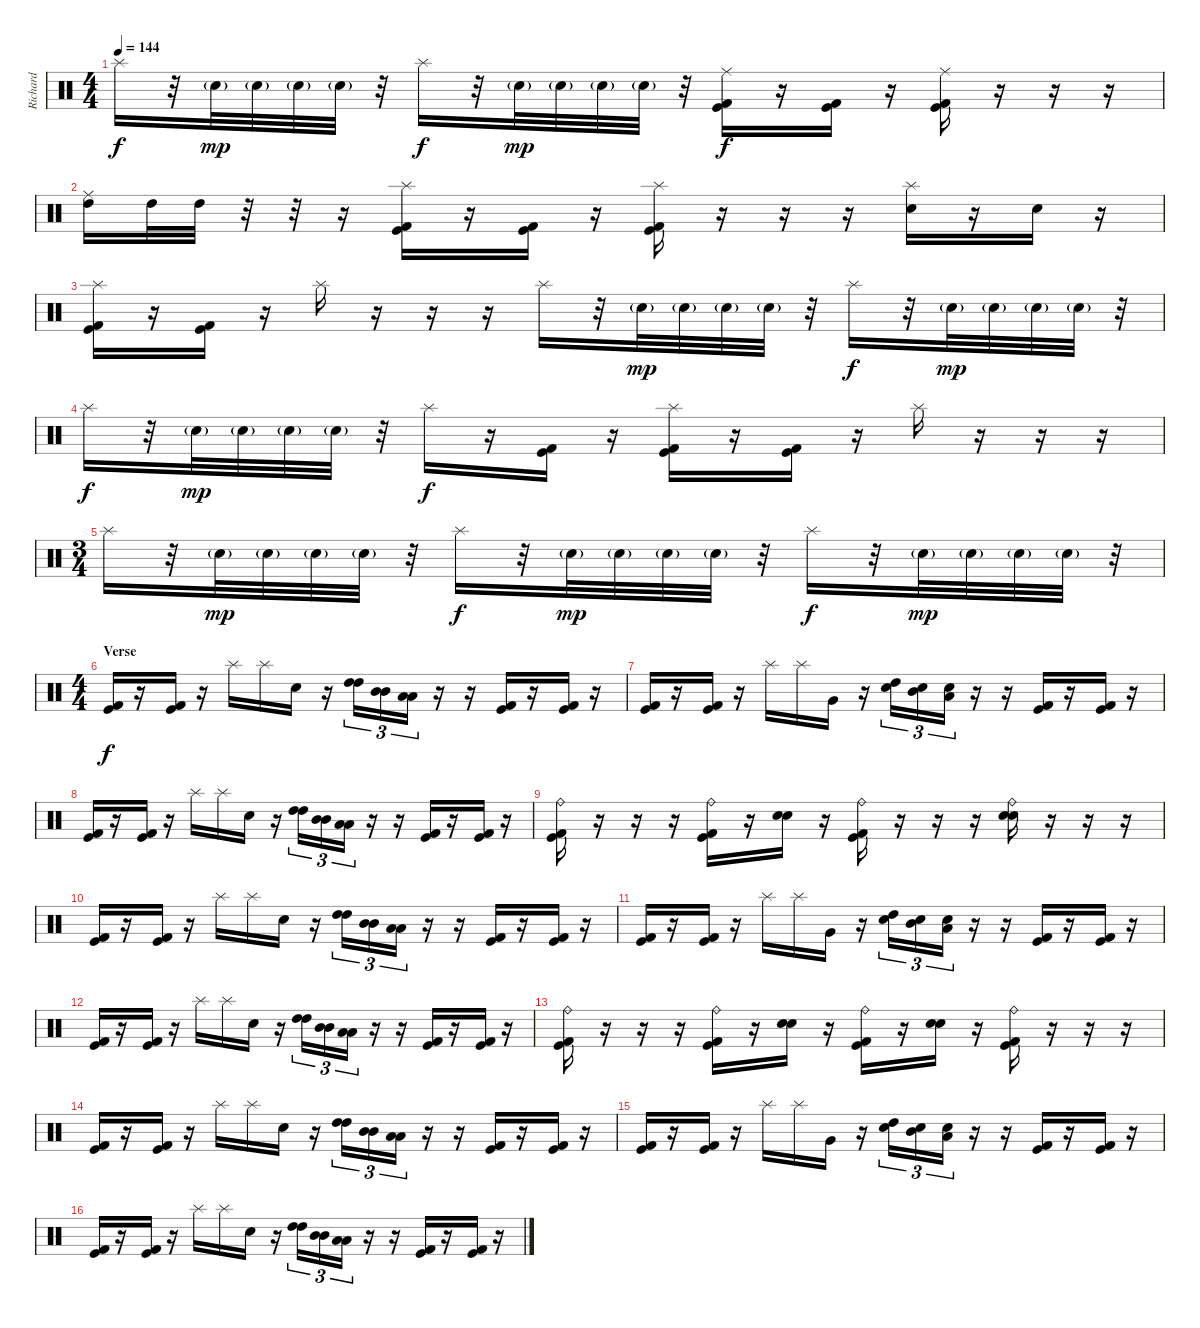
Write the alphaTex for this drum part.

\track ("Richard" "Richard") {instrument percussion}
\staff {score}
\articulation defaults
\ts (4 4)
\tempo 144
\clef neutral
\ks c "Splash (hit)".16{dy f}
r.32 "Snare (hit) 2"{g}.32{dy mp} "Snare (hit) 2"{g}.32 "Snare (hit) 2"{g}.32 "Snare (hit) 2"{g}.32 r.32 "Splash (hit)".16{dy f} r.32 "Snare (hit) 2"{g}.32{dy mp} "Snare (hit) 2"{g}.32 "Snare (hit) 2"{g}.32 "Snare (hit) 2"{g}.32 r.32 ("Ride (middle)" "Kick (hit)" "Kick (hit) 2").16{dy f} r.16 ("Kick (hit)" "Kick (hit) 2").16 r.16 ("Ride (middle)" "Kick (hit) 2" "Kick (hit)").16 r.16 r.16 r.16 |
("Ride (middle)" "High Tom (hit)").16 "High Tom (hit)".32 "High Tom (hit)".32 r.32 r.32 r.16 ("Splash (hit)" "Kick (hit) 2" "Kick (hit)").16 r.16 ("Kick (hit) 2" "Kick (hit)").16 r.16 ("Splash (hit)" "Kick (hit) 2" "Kick (hit)").16 r.16 r.16 r.16 ("Splash (hit)" "Snare (hit) 2").16 r.16 "Snare (hit) 2".16 r.16 |
("Splash (hit)" "Kick (hit)" "Kick (hit) 2").16 r.16 ("Kick (hit)" "Kick (hit) 2").16 r.16 "Splash (hit)".16 r.16 r.16 r.16 "Splash (hit)".16 r.32 "Snare (hit) 2"{g}.32{dy mp} "Snare (hit) 2"{g}.32 "Snare (hit) 2"{g}.32 "Snare (hit) 2"{g}.32 r.32 "Splash (hit)".16{dy f} r.32 "Snare (hit) 2"{g}.32{dy mp} "Snare (hit) 2"{g}.32 "Snare (hit) 2"{g}.32 "Snare (hit) 2"{g}.32 r.32 |
"Splash (hit)".16{dy f} r.32 "Snare (hit) 2"{g}.32{dy mp} "Snare (hit) 2"{g}.32 "Snare (hit) 2"{g}.32 "Snare (hit) 2"{g}.32 r.32 "Splash (hit)".16{dy f} r.16 ("Kick (hit)" "Kick (hit) 2").16 r.16 ("Splash (hit)" "Kick (hit)" "Kick (hit) 2").16 r.16 ("Kick (hit)" "Kick (hit) 2").16 r.16 "Splash (hit)".16 r.16 r.16 r.16 |
\ts (3 4)
"Splash (hit)".16 r.32 "Snare (hit) 2"{g}.32{dy mp} "Snare (hit) 2"{g}.32 "Snare (hit) 2"{g}.32 "Snare (hit) 2"{g}.32 r.32 "Splash (hit)".16{dy f} r.32 "Snare (hit) 2"{g}.32{dy mp} "Snare (hit) 2"{g}.32 "Snare (hit) 2"{g}.32 "Snare (hit) 2"{g}.32 r.32 "Splash (hit)".16{dy f} r.32 "Snare (hit) 2"{g}.32{dy mp} "Snare (hit) 2"{g}.32 "Snare (hit) 2"{g}.32 "Snare (hit) 2"{g}.32 r.32 |
\ts (4 4)
\section ("" "Verse")
("Kick (hit) 2" "Kick (hit)").16{dy f} r.16 ("Kick (hit) 2" "Kick (hit)").16 r.16 "Splash (hit)".16 "Splash (hit)".16 "Snare (hit) 2".16 r.16 ("High Tom (hit)" "High Tom (hit)").16{tu (3 2)} ("Mid Tom (hit)" "Mid Tom (hit)").16{tu (3 2)} ("Low Tom (hit)" "Low Tom (hit)").16{tu (3 2)} r.16 r.16 ("Kick (hit) 2" "Kick (hit)").16 r.16 ("Kick (hit) 2" "Kick (hit)").16 r.16 |
("Kick (hit) 2" "Kick (hit)").16 r.16 ("Kick (hit) 2" "Kick (hit)").16 r.16 "Splash (hit)".16 "Splash (hit)".16 "Very Low Tom (hit)".16 r.16 ("Snare (hit) 2" "High Tom (hit)").16{tu (3 2)} ("Snare (hit) 2" "Mid Tom (hit)").16{tu (3 2)} ("Snare (hit) 2" "Low Tom (hit)").16{tu (3 2)} r.16 r.16 ("Kick (hit)" "Kick (hit) 2").16 r.16 ("Kick (hit)" "Kick (hit) 2").16 r.16 |
("Kick (hit) 2" "Kick (hit)").16 r.16 ("Kick (hit) 2" "Kick (hit)").16 r.16 "Splash (hit)".16 "Splash (hit)".16 "Snare (hit) 2".16 r.16 ("High Tom (hit)" "High Tom (hit)").16{tu (3 2)} ("Mid Tom (hit)" "Mid Tom (hit)").16{tu (3 2)} ("Low Tom (hit)" "Low Tom (hit)").16{tu (3 2)} r.16 r.16 ("Kick (hit) 2" "Kick (hit)").16 r.16 ("Kick (hit) 2" "Kick (hit)").16 r.16 |
("Ride (bell)" "Kick (hit)" "Kick (hit) 2").16 r.16 r.16 r.16 ("Ride (bell)" "Kick (hit)" "Kick (hit) 2").16 r.16 ("Snare (hit) 2" "Electric Snare (hit)").16 r.16 ("Ride (bell)" "Kick (hit)" "Kick (hit) 2").16 r.16 r.16 r.16 ("Ride (bell)" "Snare (hit) 2" "Electric Snare (hit)").16 r.16 r.16 r.16 |
("Kick (hit) 2" "Kick (hit)").16 r.16 ("Kick (hit) 2" "Kick (hit)").16 r.16 "Splash (hit)".16 "Splash (hit)".16 "Snare (hit) 2".16 r.16 ("High Tom (hit)" "High Tom (hit)").16{tu (3 2)} ("Mid Tom (hit)" "Mid Tom (hit)").16{tu (3 2)} ("Low Tom (hit)" "Low Tom (hit)").16{tu (3 2)} r.16 r.16 ("Kick (hit) 2" "Kick (hit)").16 r.16 ("Kick (hit) 2" "Kick (hit)").16 r.16 |
("Kick (hit) 2" "Kick (hit)").16 r.16 ("Kick (hit) 2" "Kick (hit)").16 r.16 "Splash (hit)".16 "Splash (hit)".16 "Very Low Tom (hit)".16 r.16 ("Snare (hit) 2" "High Tom (hit)").16{tu (3 2)} ("Snare (hit) 2" "Mid Tom (hit)").16{tu (3 2)} ("Snare (hit) 2" "Low Tom (hit)").16{tu (3 2)} r.16 r.16 ("Kick (hit)" "Kick (hit) 2").16 r.16 ("Kick (hit)" "Kick (hit) 2").16 r.16 |
("Kick (hit) 2" "Kick (hit)").16 r.16 ("Kick (hit) 2" "Kick (hit)").16 r.16 "Splash (hit)".16 "Splash (hit)".16 "Snare (hit) 2".16 r.16 ("High Tom (hit)" "High Tom (hit)").16{tu (3 2)} ("Mid Tom (hit)" "Mid Tom (hit)").16{tu (3 2)} ("Low Tom (hit)" "Low Tom (hit)").16{tu (3 2)} r.16 r.16 ("Kick (hit) 2" "Kick (hit)").16 r.16 ("Kick (hit) 2" "Kick (hit)").16 r.16 |
("Ride (bell)" "Kick (hit)" "Kick (hit) 2").16 r.16 r.16 r.16 ("Ride (bell)" "Kick (hit)" "Kick (hit) 2").16 r.16 ("Snare (hit) 2" "Electric Snare (hit)").16 r.16 ("Ride (bell)" "Kick (hit)" "Kick (hit) 2").16 r.16 ("Snare (hit) 2" "Electric Snare (hit)").16 r.16 ("Ride (bell)" "Kick (hit)" "Kick (hit) 2").16 r.16 r.16 r.16 |
("Kick (hit) 2" "Kick (hit)").16 r.16 ("Kick (hit) 2" "Kick (hit)").16 r.16 "Splash (hit)".16 "Splash (hit)".16 "Snare (hit) 2".16 r.16 ("High Tom (hit)" "High Tom (hit)").16{tu (3 2)} ("Mid Tom (hit)" "Mid Tom (hit)").16{tu (3 2)} ("Low Tom (hit)" "Low Tom (hit)").16{tu (3 2)} r.16 r.16 ("Kick (hit) 2" "Kick (hit)").16 r.16 ("Kick (hit) 2" "Kick (hit)").16 r.16 |
("Kick (hit) 2" "Kick (hit)").16 r.16 ("Kick (hit) 2" "Kick (hit)").16 r.16 "Splash (hit)".16 "Splash (hit)".16 "Very Low Tom (hit)".16 r.16 ("Snare (hit) 2" "High Tom (hit)").16{tu (3 2)} ("Snare (hit) 2" "Mid Tom (hit)").16{tu (3 2)} ("Snare (hit) 2" "Low Tom (hit)").16{tu (3 2)} r.16 r.16 ("Kick (hit)" "Kick (hit) 2").16 r.16 ("Kick (hit)" "Kick (hit) 2").16 r.16 |
("Kick (hit) 2" "Kick (hit)").16 r.16 ("Kick (hit) 2" "Kick (hit)").16 r.16 "Splash (hit)".16 "Splash (hit)".16 "Snare (hit) 2".16 r.16 ("High Tom (hit)" "High Tom (hit)").16{tu (3 2)} ("Mid Tom (hit)" "Mid Tom (hit)").16{tu (3 2)} ("Low Tom (hit)" "Low Tom (hit)").16{tu (3 2)} r.16 r.16 ("Kick (hit) 2" "Kick (hit)").16 r.16 ("Kick (hit) 2" "Kick (hit)").16 r.16
